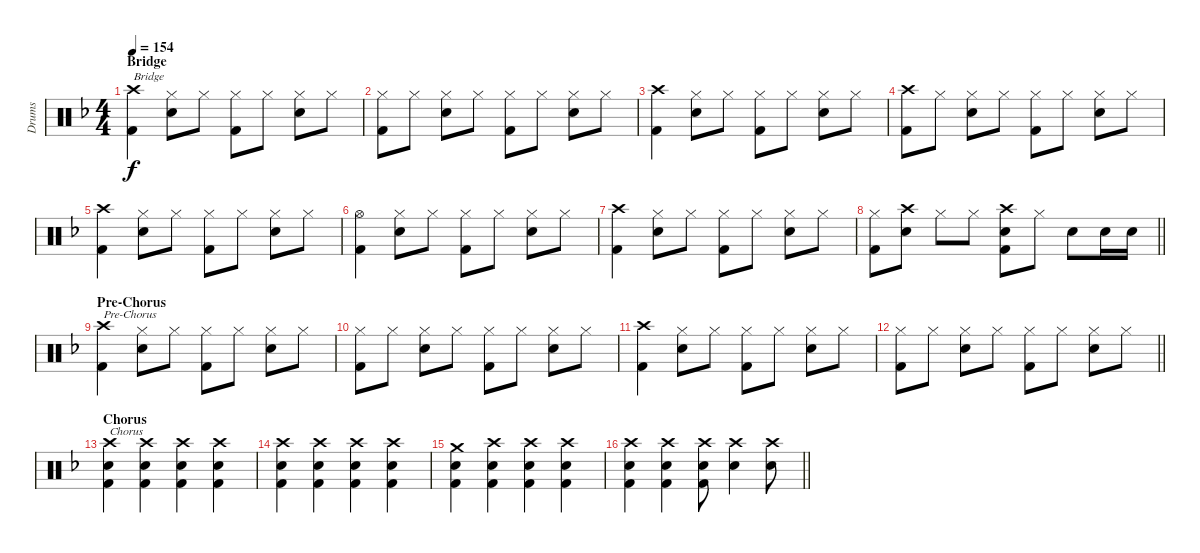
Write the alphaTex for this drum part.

\track ("Drums" "Drums") {instrument percussion}
\staff {score}
\articulation defaults
\ts (4 4)
\section ("" "Bridge")
\tempo 154
\clef neutral
\ks f
("Crash high (hit)" "Kick (hit) 2").4{txt "Bridge" dy f} ("Hi-Hat (closed)" "Snare (hit) 2").8 "Hi-Hat (closed)".8 ("Hi-Hat (closed)" "Kick (hit) 2").8 "Hi-Hat (closed)".8 ("Hi-Hat (closed)" "Snare (hit) 2").8 "Hi-Hat (closed)".8 |
("Hi-Hat (closed)" "Kick (hit) 2").8 "Hi-Hat (closed)".8 ("Hi-Hat (closed)" "Snare (hit) 2").8 "Hi-Hat (closed)".8 ("Hi-Hat (closed)" "Kick (hit) 2").8 "Hi-Hat (closed)".8 ("Hi-Hat (closed)" "Snare (hit) 2").8 "Hi-Hat (closed)".8 |
("Crash high (hit)" "Kick (hit) 2").4 ("Hi-Hat (closed)" "Snare (hit) 2").8 "Hi-Hat (closed)".8 ("Hi-Hat (closed)" "Kick (hit) 2").8 "Hi-Hat (closed)".8 ("Hi-Hat (closed)" "Snare (hit) 2").8 "Hi-Hat (closed)".8 |
("Crash high (hit)" "Kick (hit) 2").8 "Hi-Hat (closed)".8 ("Hi-Hat (closed)" "Snare (hit) 2").8 "Hi-Hat (closed)".8 ("Hi-Hat (closed)" "Kick (hit) 2").8 "Hi-Hat (closed)".8 ("Hi-Hat (closed)" "Snare (hit) 2").8 "Hi-Hat (closed)".8 |
("Crash high (hit)" "Kick (hit) 2").4 ("Hi-Hat (closed)" "Snare (hit) 2").8 "Hi-Hat (closed)".8 ("Hi-Hat (closed)" "Kick (hit) 2").8 "Hi-Hat (closed)".8 ("Hi-Hat (closed)" "Snare (hit) 2").8 "Hi-Hat (closed)".8 |
("Hi-Hat (open)" "Kick (hit) 2").4 ("Hi-Hat (closed)" "Snare (hit) 2").8 "Hi-Hat (closed)".8 ("Hi-Hat (closed)" "Kick (hit) 2").8 "Hi-Hat (closed)".8 ("Hi-Hat (closed)" "Snare (hit) 2").8 "Hi-Hat (closed)".8 |
("Crash high (hit)" "Kick (hit) 2").4 ("Hi-Hat (closed)" "Snare (hit) 2").8 "Hi-Hat (closed)".8 ("Hi-Hat (closed)" "Kick (hit) 2").8 "Hi-Hat (closed)".8 ("Hi-Hat (closed)" "Snare (hit) 2").8 "Hi-Hat (closed)".8 |
\barLineRight lightlight
("Hi-Hat (closed)" "Kick (hit) 2").8 ("Crash high (hit)" "Snare (hit) 2").8 "Hi-Hat (closed)".8 "Hi-Hat (closed)".8 ("Crash high (hit)" "Snare (hit) 2" "Kick (hit) 2").8 "Hi-Hat (closed)".8 "Snare (hit) 2".8 "Snare (hit) 2".16 "Snare (hit) 2".16 |
\section ("" "Pre-Chorus")
("Crash high (hit)" "Kick (hit) 2").4{txt "Pre-Chorus"} ("Hi-Hat (closed)" "Snare (hit) 2").8 "Hi-Hat (closed)".8 ("Hi-Hat (closed)" "Kick (hit) 2").8 "Hi-Hat (closed)".8 ("Hi-Hat (closed)" "Snare (hit) 2").8 "Hi-Hat (closed)".8 |
("Hi-Hat (closed)" "Kick (hit) 2").8 "Hi-Hat (closed)".8 ("Hi-Hat (closed)" "Snare (hit) 2").8 "Hi-Hat (closed)".8 ("Hi-Hat (closed)" "Kick (hit) 2").8 "Hi-Hat (closed)".8 ("Hi-Hat (closed)" "Snare (hit) 2").8 "Hi-Hat (closed)".8 |
("Crash high (hit)" "Kick (hit) 2").4 ("Hi-Hat (closed)" "Snare (hit) 2").8 "Hi-Hat (closed)".8 ("Hi-Hat (closed)" "Kick (hit) 2").8 "Hi-Hat (closed)".8 ("Hi-Hat (closed)" "Snare (hit) 2").8 "Hi-Hat (closed)".8 |
\barLineRight lightlight
("Hi-Hat (closed)" "Kick (hit) 2").8 "Hi-Hat (closed)".8 ("Hi-Hat (closed)" "Snare (hit) 2").8 "Hi-Hat (closed)".8 ("Hi-Hat (closed)" "Kick (hit) 2").8 "Hi-Hat (closed)".8 ("Hi-Hat (closed)" "Snare (hit) 2").8 "Hi-Hat (closed)".8 |
\section ("" "Chorus")
("Crash high (hit)" "Snare (hit) 2" "Kick (hit) 2").4{txt "Chorus"} ("Crash high (hit)" "Snare (hit) 2" "Kick (hit) 2").4 ("Crash high (hit)" "Snare (hit) 2" "Kick (hit) 2").4 ("Crash high (hit)" "Snare (hit) 2" "Kick (hit) 2").4 |
("Crash high (hit)" "Snare (hit) 2" "Kick (hit) 2").4 ("Crash high (hit)" "Snare (hit) 2" "Kick (hit) 2").4 ("Crash high (hit)" "Snare (hit) 2" "Kick (hit) 2").4 ("Crash high (hit)" "Snare (hit) 2" "Kick (hit) 2").4 |
("Crash medium (hit)" "Snare (hit) 2" "Kick (hit) 2").4 ("Crash high (hit)" "Snare (hit) 2" "Kick (hit) 2").4 ("Crash high (hit)" "Snare (hit) 2" "Kick (hit) 2").4 ("Crash high (hit)" "Snare (hit) 2" "Kick (hit) 2").4 |
\barLineRight lightlight
("Crash high (hit)" "Snare (hit) 2" "Kick (hit) 2").4 ("Crash high (hit)" "Snare (hit) 2" "Kick (hit) 2").4 ("Crash high (hit)" "Snare (hit) 2" "Kick (hit) 2").8 ("Crash high (hit)" "Snare (hit) 2").4 ("Crash high (hit)" "Snare (hit) 2").8
